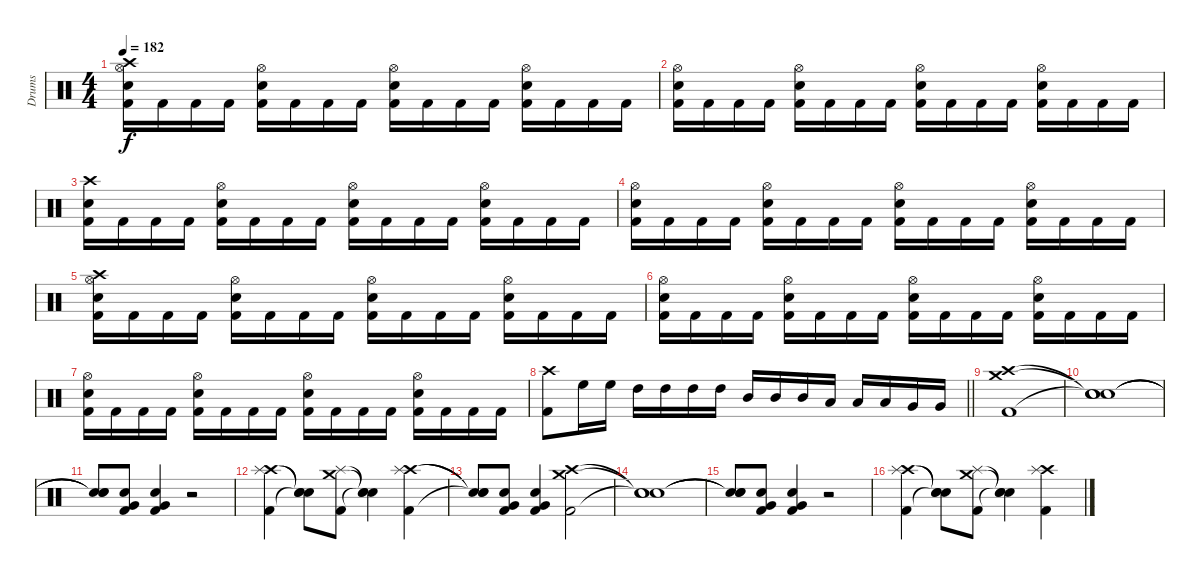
\track ("Drums" "Drums") {instrument percussion}
\staff {score}
\articulation defaults
\ts (4 4)
\tempo 182
\clef neutral
\ks c
("Crash high (hit)" "Hi-Hat (open)" "Electric Snare (hit)" "Kick (hit) 2").16{dy f} "Kick (hit) 2".16 "Kick (hit) 2".16 "Kick (hit) 2".16 ("Hi-Hat (open)" "Electric Snare (hit)" "Kick (hit) 2").16 "Kick (hit) 2".16 "Kick (hit) 2".16 "Kick (hit) 2".16 ("Hi-Hat (open)" "Electric Snare (hit)" "Kick (hit) 2").16 "Kick (hit) 2".16 "Kick (hit) 2".16 "Kick (hit) 2".16 ("Hi-Hat (open)" "Electric Snare (hit)" "Kick (hit) 2").16 "Kick (hit) 2".16 "Kick (hit) 2".16 "Kick (hit) 2".16 |
("Hi-Hat (open)" "Electric Snare (hit)" "Kick (hit) 2").16 "Kick (hit) 2".16 "Kick (hit) 2".16 "Kick (hit) 2".16 ("Hi-Hat (open)" "Electric Snare (hit)" "Kick (hit) 2").16 "Kick (hit) 2".16 "Kick (hit) 2".16 "Kick (hit) 2".16 ("Hi-Hat (open)" "Electric Snare (hit)" "Kick (hit) 2").16 "Kick (hit) 2".16 "Kick (hit) 2".16 "Kick (hit) 2".16 ("Hi-Hat (open)" "Electric Snare (hit)" "Kick (hit) 2").16 "Kick (hit) 2".16 "Kick (hit) 2".16 "Kick (hit) 2".16 |
("Crash high (hit)" "Electric Snare (hit)" "Kick (hit) 2").16 "Kick (hit) 2".16 "Kick (hit) 2".16 "Kick (hit) 2".16 ("Hi-Hat (open)" "Electric Snare (hit)" "Kick (hit) 2").16 "Kick (hit) 2".16 "Kick (hit) 2".16 "Kick (hit) 2".16 ("Hi-Hat (open)" "Electric Snare (hit)" "Kick (hit) 2").16 "Kick (hit) 2".16 "Kick (hit) 2".16 "Kick (hit) 2".16 ("Hi-Hat (open)" "Electric Snare (hit)" "Kick (hit) 2").16 "Kick (hit) 2".16 "Kick (hit) 2".16 "Kick (hit) 2".16 |
("Hi-Hat (open)" "Electric Snare (hit)" "Kick (hit) 2").16 "Kick (hit) 2".16 "Kick (hit) 2".16 "Kick (hit) 2".16 ("Hi-Hat (open)" "Electric Snare (hit)" "Kick (hit) 2").16 "Kick (hit) 2".16 "Kick (hit) 2".16 "Kick (hit) 2".16 ("Hi-Hat (open)" "Electric Snare (hit)" "Kick (hit) 2").16 "Kick (hit) 2".16 "Kick (hit) 2".16 "Kick (hit) 2".16 ("Hi-Hat (open)" "Electric Snare (hit)" "Kick (hit) 2").16 "Kick (hit) 2".16 "Kick (hit) 2".16 "Kick (hit) 2".16 |
("Crash high (hit)" "Hi-Hat (open)" "Electric Snare (hit)" "Kick (hit) 2").16 "Kick (hit) 2".16 "Kick (hit) 2".16 "Kick (hit) 2".16 ("Hi-Hat (open)" "Electric Snare (hit)" "Kick (hit) 2").16 "Kick (hit) 2".16 "Kick (hit) 2".16 "Kick (hit) 2".16 ("Hi-Hat (open)" "Electric Snare (hit)" "Kick (hit) 2").16 "Kick (hit) 2".16 "Kick (hit) 2".16 "Kick (hit) 2".16 ("Hi-Hat (open)" "Electric Snare (hit)" "Kick (hit) 2").16 "Kick (hit) 2".16 "Kick (hit) 2".16 "Kick (hit) 2".16 |
("Hi-Hat (open)" "Electric Snare (hit)" "Kick (hit) 2").16 "Kick (hit) 2".16 "Kick (hit) 2".16 "Kick (hit) 2".16 ("Hi-Hat (open)" "Electric Snare (hit)" "Kick (hit) 2").16 "Kick (hit) 2".16 "Kick (hit) 2".16 "Kick (hit) 2".16 ("Hi-Hat (open)" "Electric Snare (hit)" "Kick (hit) 2").16 "Kick (hit) 2".16 "Kick (hit) 2".16 "Kick (hit) 2".16 ("Hi-Hat (open)" "Electric Snare (hit)" "Kick (hit) 2").16 "Kick (hit) 2".16 "Kick (hit) 2".16 "Kick (hit) 2".16 |
("Hi-Hat (open)" "Electric Snare (hit)" "Kick (hit) 2").16 "Kick (hit) 2".16 "Kick (hit) 2".16 "Kick (hit) 2".16 ("Hi-Hat (open)" "Electric Snare (hit)" "Kick (hit) 2").16 "Kick (hit) 2".16 "Kick (hit) 2".16 "Kick (hit) 2".16 ("Hi-Hat (open)" "Electric Snare (hit)" "Kick (hit) 2").16 "Kick (hit) 2".16 "Kick (hit) 2".16 "Kick (hit) 2".16 ("Hi-Hat (open)" "Electric Snare (hit)" "Kick (hit) 2").16 "Kick (hit) 2".16 "Kick (hit) 2".16 "Kick (hit) 2".16 |
\barLineRight lightlight
("Crash high (hit)" "Kick (hit) 2").8 "High Floor Tom (hit)".16 "High Floor Tom (hit)".16 "High Tom (hit)".16 "High Tom (hit)".16 "High Tom (hit)".16 "High Tom (hit)".16 "Mid Tom (hit)".16 "Mid Tom (hit)".16 "Mid Tom (hit)".16 "Low Tom (hit)".16 "Low Tom (hit)".16 "Low Tom (hit)".16 "Very Low Tom (hit)".16 "Very Low Tom (hit)".16 |
("Crash high (hit)" "Crash medium (hit)" "Kick (hit) 2").1 |
("Snare (hit)"{t} "Snare (hit)"{t} "Snare (hit)"{t}).1 |
("Snare (hit)"{t} "Snare (hit)"{t} "Snare (hit)"{t}).8 ("Very Low Tom (hit)" "Electric Snare (hit)" "Kick (hit) 2").8 ("Very Low Tom (hit)" "Electric Snare (hit)" "Kick (hit) 2").4 r.2 |
("Crash high (hit)" "Splash (hit)" "Kick (hit) 2").4 ("Snare (hit)"{t} "Snare (hit)"{t} "Snare (hit)"{t}).8 ("Crash medium (hit)" "Splash (hit)" "Kick (hit) 2").8 ("Snare (hit)"{t} "Snare (hit)"{t} "Snare (hit)"{t}).4 ("Crash high (hit)" "Splash (hit)" "Kick (hit) 2").4 |
("Snare (hit)"{t} "Snare (hit)"{t} "Snare (hit)"{t}).8 ("Very Low Tom (hit)" "Electric Snare (hit)" "Kick (hit) 2").8 ("Very Low Tom (hit)" "Electric Snare (hit)" "Kick (hit) 2").4 ("Crash high (hit)" "Crash medium (hit)" "Kick (hit) 2").2 |
("Snare (hit)"{t} "Snare (hit)"{t} "Snare (hit)"{t}).1 |
("Snare (hit)"{t} "Snare (hit)"{t} "Snare (hit)"{t}).8 ("Very Low Tom (hit)" "Electric Snare (hit)" "Kick (hit) 2").8 ("Very Low Tom (hit)" "Electric Snare (hit)" "Kick (hit) 2").4 r.2 |
("Crash high (hit)" "Splash (hit)" "Kick (hit) 2").4 ("Snare (hit)"{t} "Snare (hit)"{t} "Snare (hit)"{t}).8 ("Crash medium (hit)" "Splash (hit)" "Kick (hit) 2").8 ("Snare (hit)"{t} "Snare (hit)"{t} "Snare (hit)"{t}).4 ("Crash high (hit)" "Splash (hit)" "Kick (hit) 2").4
